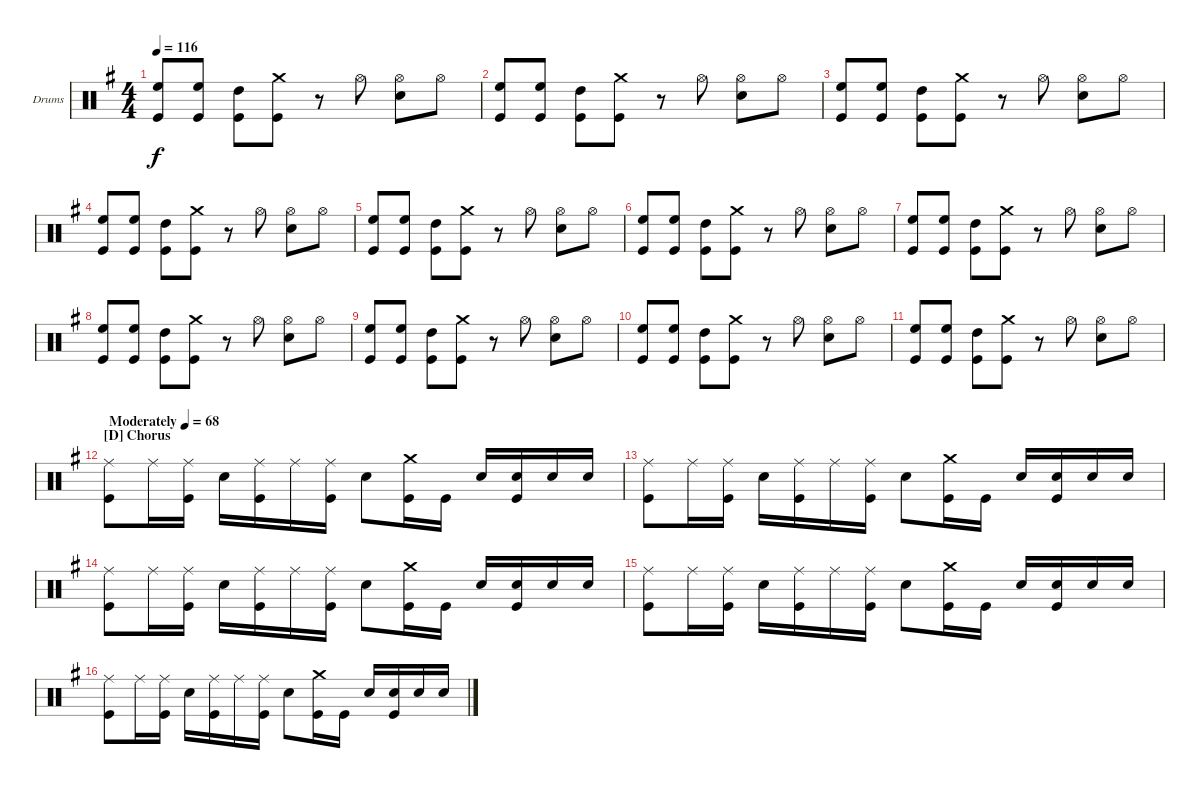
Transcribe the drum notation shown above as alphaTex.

\defaultSystemsLayout 4
\bracketExtendMode groupsimilarinstruments
\firstSystemTrackNameOrientation horizontal
\otherSystemsTrackNameOrientation horizontal
\track ("Drumkit" "Drums") {instrument percussion}
\staff {score}
\articulation defaults
\ts (4 4)
\tempo 116
\clef neutral
\scale
1.02648
\ks g
("High Floor Tom (hit)" "Kick (hit)").8{dy f} ("High Floor Tom (hit)" "Kick (hit)").8 ("High Tom (hit)" "Kick (hit)").8 ("Crash medium (hit)" "Kick (hit)").8 r.8 "Hi-Hat (open)".8 ("Hi-Hat (open)" "Snare (hit) 2").8 "Hi-Hat (open)".8 |
("High Floor Tom (hit)" "Kick (hit)").8 ("High Floor Tom (hit)" "Kick (hit)").8 ("High Tom (hit)" "Kick (hit)").8 ("Crash medium (hit)" "Kick (hit)").8 r.8 "Hi-Hat (open)".8 ("Hi-Hat (open)" "Snare (hit) 2").8 "Hi-Hat (open)".8 |
("High Floor Tom (hit)" "Kick (hit)").8 ("High Floor Tom (hit)" "Kick (hit)").8 ("High Tom (hit)" "Kick (hit)").8 ("Crash medium (hit)" "Kick (hit)").8 r.8 "Hi-Hat (open)".8 ("Hi-Hat (open)" "Snare (hit) 2").8 "Hi-Hat (open)".8 |
\scale
0.973518 ("High Floor Tom (hit)" "Kick (hit)").8 ("High Floor Tom (hit)" "Kick (hit)").8 ("High Tom (hit)" "Kick (hit)").8 ("Crash medium (hit)" "Kick (hit)").8 r.8 "Hi-Hat (open)".8 ("Hi-Hat (open)" "Snare (hit) 2").8 "Hi-Hat (open)".8 |
\scale
1.02648 ("High Floor Tom (hit)" "Kick (hit)").8 ("High Floor Tom (hit)" "Kick (hit)").8 ("High Tom (hit)" "Kick (hit)").8 ("Crash medium (hit)" "Kick (hit)").8 r.8 "Hi-Hat (open)".8 ("Hi-Hat (open)" "Snare (hit) 2").8 "Hi-Hat (open)".8 |
\scale
0.973518 ("High Floor Tom (hit)" "Kick (hit)").8 ("High Floor Tom (hit)" "Kick (hit)").8 ("High Tom (hit)" "Kick (hit)").8 ("Crash medium (hit)" "Kick (hit)").8 r.8 "Hi-Hat (open)".8 ("Hi-Hat (open)" "Snare (hit) 2").8 "Hi-Hat (open)".8 |
\scale
1.02648 ("High Floor Tom (hit)" "Kick (hit)").8 ("High Floor Tom (hit)" "Kick (hit)").8 ("High Tom (hit)" "Kick (hit)").8 ("Crash medium (hit)" "Kick (hit)").8 r.8 "Hi-Hat (open)".8 ("Hi-Hat (open)" "Snare (hit) 2").8 "Hi-Hat (open)".8 |
\scale
0.973518 ("High Floor Tom (hit)" "Kick (hit)").8 ("High Floor Tom (hit)" "Kick (hit)").8 ("High Tom (hit)" "Kick (hit)").8 ("Crash medium (hit)" "Kick (hit)").8 r.8 "Hi-Hat (open)".8 ("Hi-Hat (open)" "Snare (hit) 2").8 "Hi-Hat (open)".8 |
\scale
1.02648 ("High Floor Tom (hit)" "Kick (hit)").8 ("High Floor Tom (hit)" "Kick (hit)").8 ("High Tom (hit)" "Kick (hit)").8 ("Crash medium (hit)" "Kick (hit)").8 r.8 "Hi-Hat (open)".8 ("Hi-Hat (open)" "Snare (hit) 2").8 "Hi-Hat (open)".8 |
\scale
0.973518 ("High Floor Tom (hit)" "Kick (hit)").8 ("High Floor Tom (hit)" "Kick (hit)").8 ("High Tom (hit)" "Kick (hit)").8 ("Crash medium (hit)" "Kick (hit)").8 r.8 "Hi-Hat (open)".8 ("Hi-Hat (open)" "Snare (hit) 2").8 "Hi-Hat (open)".8 |
\scale
1.02648 ("High Floor Tom (hit)" "Kick (hit)").8 ("High Floor Tom (hit)" "Kick (hit)").8 ("High Tom (hit)" "Kick (hit)").8 ("Crash medium (hit)" "Kick (hit)").8 r.8 "Hi-Hat (open)".8 ("Hi-Hat (open)" "Snare (hit) 2").8 "Hi-Hat (open)".8 |
\section ("D" "Chorus")
\tempo (68 "Moderately")
\scale
0.973518 ("Ride (middle)" "Kick (hit)").8 "Ride (middle)".16 ("Ride (middle)" "Kick (hit)").16 "Snare (hit) 2".16 ("Ride (middle)" "Kick (hit)").16 "Ride (middle)".16 ("Ride (middle)" "Kick (hit)").16 "Snare (hit) 2".8 ("Crash medium (hit)" "Kick (hit)").16 "Kick (hit)".16 "Snare (hit) 2".16 ("Snare (hit) 2" "Kick (hit)").16 "Snare (hit) 2".16 "Snare (hit) 2".16 |
\scale
1.02648 ("Ride (middle)" "Kick (hit)").8 "Ride (middle)".16 ("Ride (middle)" "Kick (hit)").16 "Snare (hit) 2".16 ("Ride (middle)" "Kick (hit)").16 "Ride (middle)".16 ("Ride (middle)" "Kick (hit)").16 "Snare (hit) 2".8 ("Crash medium (hit)" "Kick (hit)").16 "Kick (hit)".16 "Snare (hit) 2".16 ("Snare (hit) 2" "Kick (hit)").16 "Snare (hit) 2".16 "Snare (hit) 2".16 |
\scale
0.973518 ("Ride (middle)" "Kick (hit)").8 "Ride (middle)".16 ("Ride (middle)" "Kick (hit)").16 "Snare (hit) 2".16 ("Ride (middle)" "Kick (hit)").16 "Ride (middle)".16 ("Ride (middle)" "Kick (hit)").16 "Snare (hit) 2".8 ("Crash medium (hit)" "Kick (hit)").16 "Kick (hit)".16 "Snare (hit) 2".16 ("Snare (hit) 2" "Kick (hit)").16 "Snare (hit) 2".16 "Snare (hit) 2".16 |
\scale
1.02648 ("Ride (middle)" "Kick (hit)").8 "Ride (middle)".16 ("Ride (middle)" "Kick (hit)").16 "Snare (hit) 2".16 ("Ride (middle)" "Kick (hit)").16 "Ride (middle)".16 ("Ride (middle)" "Kick (hit)").16 "Snare (hit) 2".8 ("Crash medium (hit)" "Kick (hit)").16 "Kick (hit)".16 "Snare (hit) 2".16 ("Snare (hit) 2" "Kick (hit)").16 "Snare (hit) 2".16 "Snare (hit) 2".16 |
\scale
0.973518 ("Ride (middle)" "Kick (hit)").8 "Ride (middle)".16 ("Ride (middle)" "Kick (hit)").16 "Snare (hit) 2".16 ("Ride (middle)" "Kick (hit)").16 "Ride (middle)".16 ("Ride (middle)" "Kick (hit)").16 "Snare (hit) 2".8 ("Crash medium (hit)" "Kick (hit)").16 "Kick (hit)".16 "Snare (hit) 2".16 ("Snare (hit) 2" "Kick (hit)").16 "Snare (hit) 2".16 "Snare (hit) 2".16
